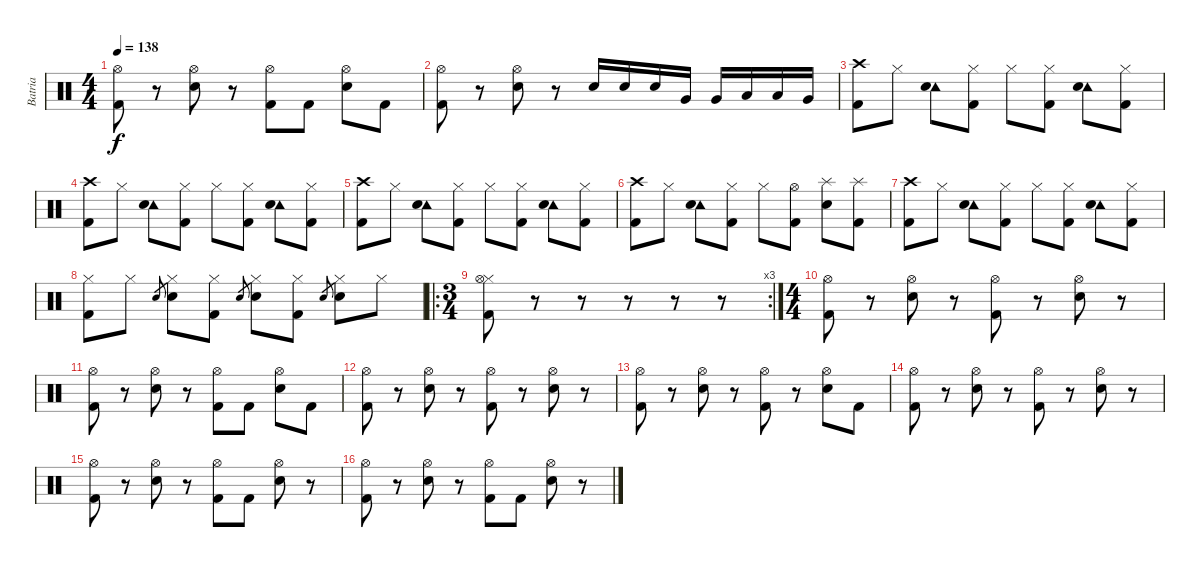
\track ("Batria" "Batria") {instrument percussion}
\staff {score}
\articulation defaults
\ts (4 4)
\tempo 138
\clef neutral
\ks c
("Hi-Hat (open)" "Kick (hit) 2").8{dy f} r.8 ("Hi-Hat (open)" "Electric Snare (hit)").8 r.8 ("Hi-Hat (open)" "Kick (hit) 2").8 "Kick (hit) 2".8 ("Hi-Hat (open)" "Electric Snare (hit)").8 "Kick (hit) 2".8 |
("Hi-Hat (open)" "Kick (hit) 2").8 r.8 ("Hi-Hat (open)" "Electric Snare (hit)").8 r.8 "Electric Snare (hit)".16 "Electric Snare (hit)".16 "Electric Snare (hit)".16 "Very Low Tom (hit)".16 "Very Low Tom (hit)".16 "Low Tom (hit)".16 "Low Tom (hit)".16 "Very Low Tom (hit)".16 |
("Crash high (hit)" "Kick (hit) 2").8 "Hi-Hat (closed)".8 ("Tambourine (hit)" "Electric Snare (hit)").8 ("Hi-Hat (closed)" "Kick (hit) 2").8 "Hi-Hat (closed)".8 ("Hi-Hat (closed)" "Kick (hit) 2").8 ("Tambourine (hit)" "Electric Snare (hit)").8 ("Hi-Hat (closed)" "Kick (hit) 2").8 |
("Crash high (hit)" "Kick (hit) 2").8 "Hi-Hat (closed)".8 ("Tambourine (hit)" "Electric Snare (hit)").8 ("Hi-Hat (closed)" "Kick (hit) 2").8 "Hi-Hat (closed)".8 ("Hi-Hat (closed)" "Kick (hit) 2").8 ("Tambourine (hit)" "Electric Snare (hit)").8 ("Hi-Hat (closed)" "Kick (hit) 2").8 |
("Crash high (hit)" "Kick (hit) 2").8 "Hi-Hat (closed)".8 ("Tambourine (hit)" "Electric Snare (hit)").8 ("Hi-Hat (closed)" "Kick (hit) 2").8 "Hi-Hat (closed)".8 ("Hi-Hat (closed)" "Kick (hit) 2").8 ("Tambourine (hit)" "Electric Snare (hit)").8 ("Hi-Hat (closed)" "Kick (hit) 2").8 |
("Crash high (hit)" "Kick (hit) 2").8 "Hi-Hat (closed)".8 ("Tambourine (hit)" "Electric Snare (hit)").8 ("Hi-Hat (closed)" "Kick (hit) 2").8 "Hi-Hat (closed)".8 ("Hi-Hat (open)" "Kick (hit) 2").8 ("Splash (hit)" "Electric Snare (hit)").8 ("Splash (hit)" "Kick (hit) 2").8 |
("Crash high (hit)" "Kick (hit) 2").8 "Hi-Hat (closed)".8 ("Tambourine (hit)" "Electric Snare (hit)").8 ("Hi-Hat (closed)" "Kick (hit) 2").8 "Hi-Hat (closed)".8 ("Hi-Hat (closed)" "Kick (hit) 2").8 ("Tambourine (hit)" "Electric Snare (hit)").8 ("Hi-Hat (closed)" "Kick (hit) 2").8 |
("Hi-Hat (closed)" "Kick (hit) 2").8 "Hi-Hat (closed)".8 "Electric Snare (hit)".8{gr} ("Hi-Hat (closed)" "Electric Snare (hit)").8 ("Hi-Hat (closed)" "Kick (hit) 2").8 "Electric Snare (hit)".8{gr} ("Hi-Hat (closed)" "Electric Snare (hit)").8 ("Hi-Hat (closed)" "Kick (hit) 2").8 "Electric Snare (hit)".8{gr} ("Hi-Hat (closed)" "Electric Snare (hit)").8 "Hi-Hat (closed)".8 |
\ro
\rc 3
\ts (3 4)
("Hi-Hat (closed)" "Hi-Hat (open)" "Kick (hit) 2").8 r.8 r.8 r.8 r.8 r.8 |
\ts (4 4)
("Hi-Hat (open)" "Kick (hit) 2").8 r.8 ("Hi-Hat (open)" "Electric Snare (hit)").8 r.8 ("Hi-Hat (open)" "Kick (hit) 2").8 r.8 ("Hi-Hat (open)" "Electric Snare (hit)").8 r.8 |
("Hi-Hat (open)" "Kick (hit) 2").8 r.8 ("Hi-Hat (open)" "Electric Snare (hit)").8 r.8 ("Hi-Hat (open)" "Kick (hit) 2").8 "Kick (hit) 2".8 ("Hi-Hat (open)" "Electric Snare (hit)").8 "Kick (hit) 2".8 |
("Hi-Hat (open)" "Kick (hit) 2").8 r.8 ("Hi-Hat (open)" "Electric Snare (hit)").8 r.8 ("Hi-Hat (open)" "Kick (hit) 2").8 r.8 ("Hi-Hat (open)" "Electric Snare (hit)").8 r.8 |
("Hi-Hat (open)" "Kick (hit) 2").8 r.8 ("Hi-Hat (open)" "Electric Snare (hit)").8 r.8 ("Hi-Hat (open)" "Kick (hit) 2").8 r.8 ("Hi-Hat (open)" "Electric Snare (hit)").8 "Kick (hit) 2".8 |
("Hi-Hat (open)" "Kick (hit) 2").8 r.8 ("Hi-Hat (open)" "Electric Snare (hit)").8 r.8 ("Hi-Hat (open)" "Kick (hit) 2").8 r.8 ("Hi-Hat (open)" "Electric Snare (hit)").8 r.8 |
("Hi-Hat (open)" "Kick (hit) 2").8 r.8 ("Hi-Hat (open)" "Electric Snare (hit)").8 r.8 ("Hi-Hat (open)" "Kick (hit) 2").8 "Kick (hit) 2".8 ("Hi-Hat (open)" "Electric Snare (hit)").8 r.8 |
("Hi-Hat (open)" "Kick (hit) 2").8 r.8 ("Hi-Hat (open)" "Electric Snare (hit)").8 r.8 ("Hi-Hat (open)" "Kick (hit) 2").8 "Kick (hit) 2".8 ("Hi-Hat (open)" "Electric Snare (hit)").8 r.8
